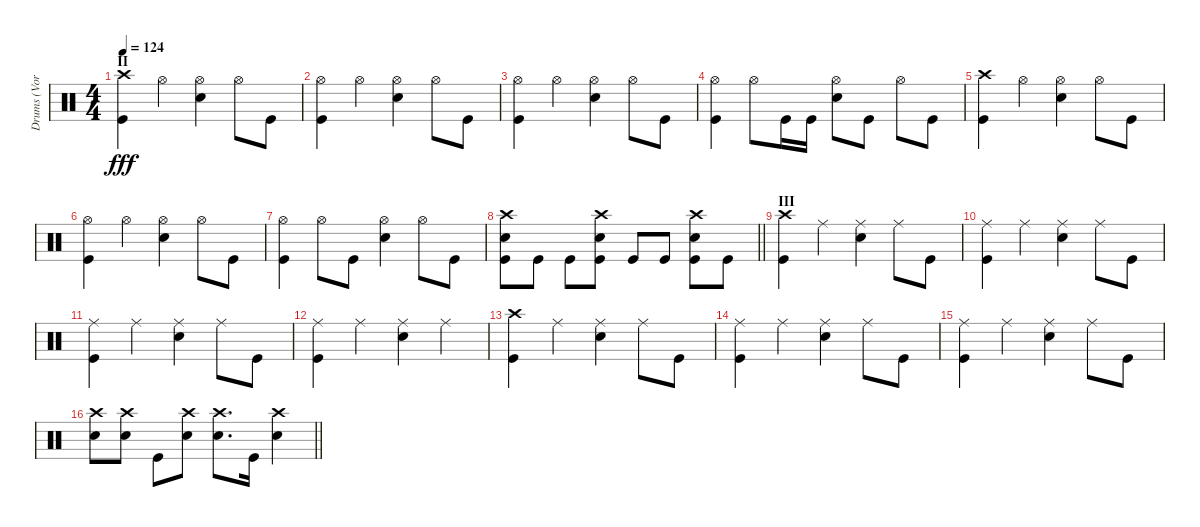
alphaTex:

\track ("Drums (Vortex)" "Drums (Vor") {instrument percussion}
\staff {score}
\articulation defaults
\ts (4 4)
\section ("" "II")
\tempo 124
\clef neutral
\ks c
("Crash high (hit)" "Kick (hit)").4{dy fff} "Hi-Hat (open)".4 ("Hi-Hat (open)" "Snare (hit) 2").4 "Hi-Hat (open)".8 "Kick (hit)".8 |
("Kick (hit)" "Hi-Hat (open)").4 "Hi-Hat (open)".4 ("Hi-Hat (open)" "Snare (hit) 2").4 "Hi-Hat (open)".8 "Kick (hit)".8 |
("Kick (hit)" "Hi-Hat (open)").4 "Hi-Hat (open)".4 ("Hi-Hat (open)" "Snare (hit) 2").4 "Hi-Hat (open)".8 "Kick (hit)".8 |
("Kick (hit)" "Hi-Hat (open)").4 "Hi-Hat (open)".8 "Kick (hit)".16 "Kick (hit)".16 ("Hi-Hat (open)" "Snare (hit) 2").8 "Kick (hit)".8 "Hi-Hat (open)".8 "Kick (hit)".8 |
("Crash high (hit)" "Kick (hit)").4 "Hi-Hat (open)".4 ("Hi-Hat (open)" "Snare (hit) 2").4 "Hi-Hat (open)".8 "Kick (hit)".8 |
("Kick (hit)" "Hi-Hat (open)").4 "Hi-Hat (open)".4 ("Hi-Hat (open)" "Snare (hit) 2").4 "Hi-Hat (open)".8 "Kick (hit)".8 |
("Kick (hit)" "Hi-Hat (open)").4 "Hi-Hat (open)".8 "Kick (hit)".8 ("Hi-Hat (open)" "Snare (hit) 2").4 "Hi-Hat (open)".8 "Kick (hit)".8 |
\barLineRight lightlight
("Crash high (hit)" "Kick (hit)" "Snare (hit) 2").8 "Kick (hit)".8 "Kick (hit)".8 ("Crash high (hit)" "Kick (hit)" "Snare (hit) 2").8 "Kick (hit)".8 "Kick (hit)".8 ("Crash high (hit)" "Kick (hit)" "Snare (hit) 2").8 "Kick (hit)".8 |
\section ("" "III")
("Crash high (hit)" "Kick (hit)").4 "Ride (middle)".4 ("Ride (middle)" "Snare (hit) 2").4 "Ride (middle)".8 "Kick (hit)".8 |
("Kick (hit)" "Ride (middle)").4 "Ride (middle)".4 ("Ride (middle)" "Snare (hit) 2").4 "Ride (middle)".8 "Kick (hit)".8 |
("Kick (hit)" "Ride (middle)").4 "Ride (middle)".4 ("Ride (middle)" "Snare (hit) 2").4 "Ride (middle)".8 "Kick (hit)".8 |
("Kick (hit)" "Ride (middle)").4 "Ride (middle)".4 ("Ride (middle)" "Snare (hit) 2").4 "Ride (middle)".4 |
("Crash high (hit)" "Kick (hit)").4 "Ride (middle)".4 ("Ride (middle)" "Snare (hit) 2").4 "Ride (middle)".8 "Kick (hit)".8 |
("Kick (hit)" "Ride (middle)").4 "Ride (middle)".4 ("Ride (middle)" "Snare (hit) 2").4 "Ride (middle)".8 "Kick (hit)".8 |
("Kick (hit)" "Ride (middle)").4 "Ride (middle)".4 ("Ride (middle)" "Snare (hit) 2").4 "Ride (middle)".8 "Kick (hit)".8 |
\barLineRight lightlight
("Crash high (hit)" "Snare (hit) 2").8 ("Crash high (hit)" "Snare (hit) 2").8 "Kick (hit)".8 ("Crash high (hit)" "Snare (hit) 2").8 ("Crash high (hit)" "Snare (hit) 2").8{d} "Kick (hit)".16 ("Crash high (hit)" "Snare (hit) 2").4
